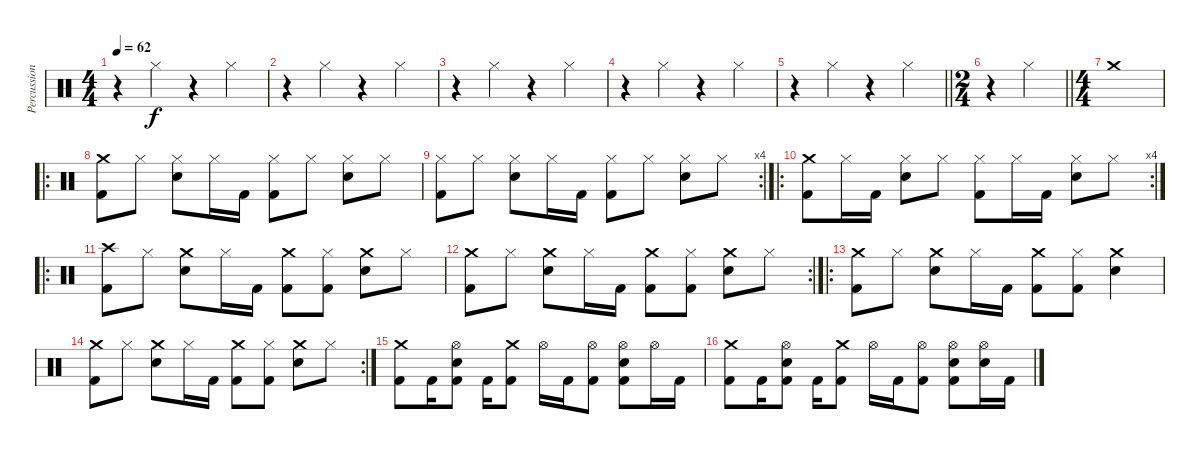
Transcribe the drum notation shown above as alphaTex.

\track ("Percussion" "Percussion") {instrument percussion}
\staff {score}
\articulation defaults
\ts (4 4)
\tempo 62
\clef neutral
\ks c
r.4{dy f} "Hi-Hat (closed)".4 r.4 "Hi-Hat (closed)".4 |
r.4 "Hi-Hat (closed)".4 r.4 "Hi-Hat (closed)".4 |
r.4 "Hi-Hat (closed)".4 r.4 "Hi-Hat (closed)".4 |
r.4 "Hi-Hat (closed)".4 r.4 "Hi-Hat (closed)".4 |
\barLineRight lightlight
r.4 "Hi-Hat (closed)".4 r.4 "Hi-Hat (closed)".4 |
\ts (2 4)
\barLineRight lightlight
r.4 "Hi-Hat (closed)".4 |
\ts (4 4)
"Crash medium (hit)".1 |
\ro
("Crash medium (hit)" "Kick (hit) 2").8 "Hi-Hat (closed)".8 ("Hi-Hat (closed)" "Electric Snare (hit)").8 "Hi-Hat (closed)".16 "Kick (hit) 2".16 ("Hi-Hat (closed)" "Kick (hit) 2").8 "Hi-Hat (closed)".8 ("Hi-Hat (closed)" "Electric Snare (hit)").8 "Hi-Hat (closed)".8 |
\rc 4
("Hi-Hat (closed)" "Kick (hit) 2").8 "Hi-Hat (closed)".8 ("Hi-Hat (closed)" "Electric Snare (hit)").8 "Hi-Hat (closed)".16 "Kick (hit) 2".16 ("Hi-Hat (closed)" "Kick (hit) 2").8 "Hi-Hat (closed)".8 ("Hi-Hat (closed)" "Electric Snare (hit)").8 "Hi-Hat (closed)".8 |
\ro
\rc 4
("Crash medium (hit)" "Kick (hit) 2").8 "Hi-Hat (closed)".16 "Kick (hit) 2".16 ("Hi-Hat (closed)" "Electric Snare (hit)").8 "Hi-Hat (closed)".8 ("Hi-Hat (closed)" "Kick (hit) 2").8 "Hi-Hat (closed)".16 "Kick (hit) 2".16 ("Hi-Hat (closed)" "Electric Snare (hit)").8 "Hi-Hat (closed)".8 |
\ro
("Crash high (hit)" "Kick (hit) 2").8 "Hi-Hat (closed)".8 ("Crash medium (hit)" "Electric Snare (hit)").8 "Hi-Hat (closed)".16 "Kick (hit) 2".16 ("Crash medium (hit)" "Kick (hit) 2").8 ("Hi-Hat (closed)" "Kick (hit) 2").8 ("Crash medium (hit)" "Electric Snare (hit)").8 "Hi-Hat (closed)".8 |
\rc 2
("Crash medium (hit)" "Kick (hit) 2").8 "Hi-Hat (closed)".8 ("Crash medium (hit)" "Electric Snare (hit)").8 "Hi-Hat (closed)".16 "Kick (hit) 2".16 ("Crash medium (hit)" "Kick (hit) 2").8 ("Hi-Hat (closed)" "Kick (hit) 2").8 ("Crash medium (hit)" "Electric Snare (hit)").8 "Hi-Hat (closed)".8 |
\ro
("Crash medium (hit)" "Kick (hit) 2").8 "Hi-Hat (closed)".8 ("Crash medium (hit)" "Electric Snare (hit)").8 "Hi-Hat (closed)".16 "Kick (hit) 2".16 ("Crash medium (hit)" "Kick (hit) 2").8 ("Hi-Hat (closed)" "Kick (hit) 2").8 ("Crash medium (hit)" "Electric Snare (hit)").4 |
\rc 2
("Crash medium (hit)" "Kick (hit) 2").8 "Hi-Hat (closed)".8 ("Crash medium (hit)" "Electric Snare (hit)").8 "Hi-Hat (closed)".16 "Kick (hit) 2".16 ("Crash medium (hit)" "Kick (hit) 2").8 ("Hi-Hat (closed)" "Kick (hit) 2").8 ("Crash medium (hit)" "Electric Snare (hit)").8 "Hi-Hat (closed)".8 |
("Crash medium (hit)" "Kick (hit) 2").8 "Kick (hit) 2".16 ("Hi-Hat (open)" "Electric Snare (hit)" "Kick (hit) 2").8 "Kick (hit) 2".16 ("Crash medium (hit)" "Kick (hit) 2").8 "Hi-Hat (open)".16 "Kick (hit) 2".16 ("Hi-Hat (open)" "Kick (hit) 2").8 ("Hi-Hat (open)" "Electric Snare (hit)" "Kick (hit) 2").8 "Hi-Hat (open)".16 "Kick (hit) 2".16 |
("Crash medium (hit)" "Kick (hit) 2").8 "Kick (hit) 2".16 ("Hi-Hat (open)" "Electric Snare (hit)" "Kick (hit) 2").8 "Kick (hit) 2".16 ("Crash medium (hit)" "Kick (hit) 2").8 "Hi-Hat (open)".16 "Kick (hit) 2".16 ("Hi-Hat (open)" "Kick (hit) 2").8 ("Hi-Hat (open)" "Electric Snare (hit)" "Kick (hit) 2").8 ("Hi-Hat (open)" "Electric Snare (hit)").16 "Kick (hit) 2".16
